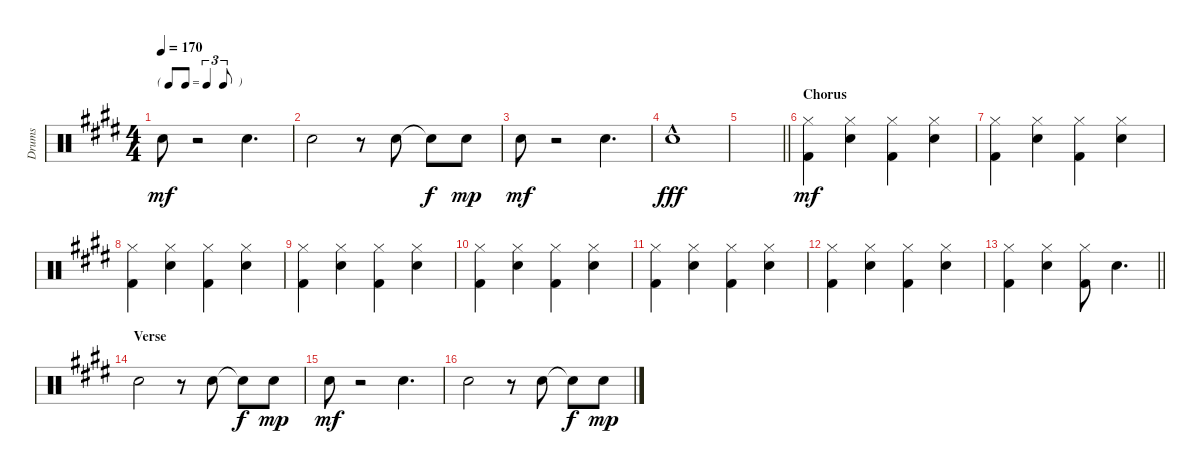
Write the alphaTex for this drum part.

\track ("Drums" "Drums") {instrument percussion}
\staff {score}
\articulation defaults
\ts (4 4)
\tf triplet8th
\tempo 170
\clef neutral
\ks e "Snare (hit) 2".8{dy mf}
r.2 "Snare (hit) 2".4{d} |
"Snare (hit) 2".2 r.8 "Snare (hit) 2".8 "Snare (hit) 2"{t}.8{dy f} "Snare (hit) 2".8{dy mp} |
"Snare (hit) 2".8{dy mf} r.2 "Snare (hit) 2".4{d} |
"Snare (hit) 2"{hac}.1{dy fff} |
\barLineRight lightlight
|
\section ("" "Chorus")
("Kick (hit) 2" "Hi-Hat (closed)").4{dy mf} ("Snare (hit) 2" "Hi-Hat (closed)").4 ("Kick (hit) 2" "Hi-Hat (closed)").4 ("Snare (hit) 2" "Hi-Hat (closed)").4 |
("Kick (hit) 2" "Hi-Hat (closed)").4 ("Snare (hit) 2" "Hi-Hat (closed)").4 ("Kick (hit) 2" "Hi-Hat (closed)").4 ("Snare (hit) 2" "Hi-Hat (closed)").4 |
("Kick (hit) 2" "Hi-Hat (closed)").4 ("Snare (hit) 2" "Hi-Hat (closed)").4 ("Kick (hit) 2" "Hi-Hat (closed)").4 ("Snare (hit) 2" "Hi-Hat (closed)").4 |
("Kick (hit) 2" "Hi-Hat (closed)").4 ("Snare (hit) 2" "Hi-Hat (closed)").4 ("Kick (hit) 2" "Hi-Hat (closed)").4 ("Snare (hit) 2" "Hi-Hat (closed)").4 |
("Kick (hit) 2" "Hi-Hat (closed)").4 ("Snare (hit) 2" "Hi-Hat (closed)").4 ("Kick (hit) 2" "Hi-Hat (closed)").4 ("Snare (hit) 2" "Hi-Hat (closed)").4 |
("Kick (hit) 2" "Hi-Hat (closed)").4 ("Snare (hit) 2" "Hi-Hat (closed)").4 ("Kick (hit) 2" "Hi-Hat (closed)").4 ("Snare (hit) 2" "Hi-Hat (closed)").4 |
("Kick (hit) 2" "Hi-Hat (closed)").4 ("Snare (hit) 2" "Hi-Hat (closed)").4 ("Kick (hit) 2" "Hi-Hat (closed)").4 ("Snare (hit) 2" "Hi-Hat (closed)").4 |
\barLineRight lightlight
("Kick (hit) 2" "Hi-Hat (closed)").4 ("Snare (hit) 2" "Hi-Hat (closed)").4 ("Kick (hit) 2" "Hi-Hat (closed)").8 "Snare (hit) 2".4{d} |
\section ("" "Verse")
"Snare (hit) 2".2 r.8 "Snare (hit) 2".8 "Snare (hit) 2"{t}.8{dy f} "Snare (hit) 2".8{dy mp} |
"Snare (hit) 2".8{dy mf} r.2 "Snare (hit) 2".4{d} |
"Snare (hit) 2".2 r.8 "Snare (hit) 2".8 "Snare (hit) 2"{t}.8{dy f} "Snare (hit) 2".8{dy mp}
